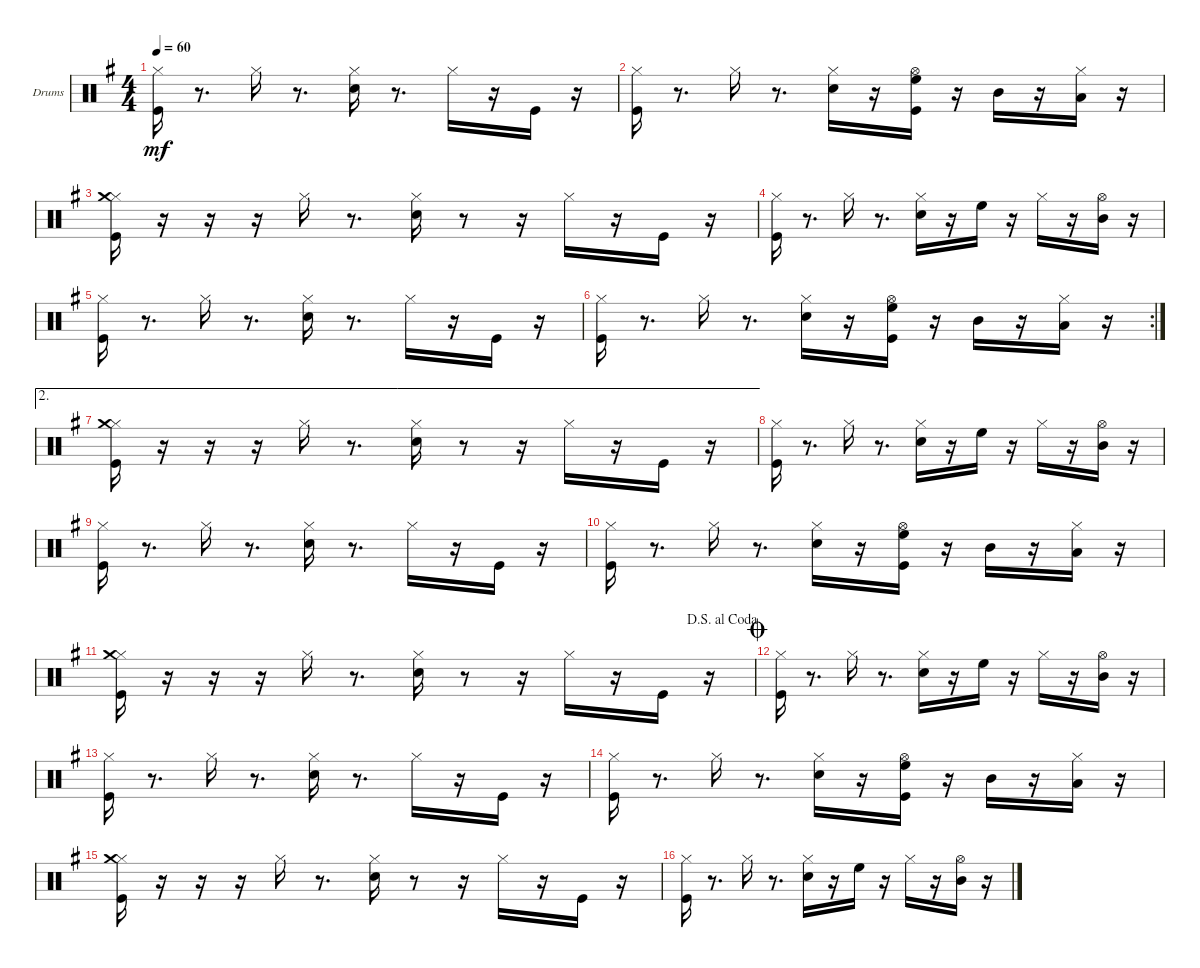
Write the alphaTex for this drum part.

\bracketExtendMode groupsimilarinstruments
\firstSystemTrackNameOrientation horizontal
\otherSystemsTrackNameOrientation horizontal
\track ("Drumkit" "Drums") {instrument percussion}
\staff {score}
\articulation defaults
\ts (4 4)
\tempo 60
\clef neutral
\scale
0.333333
\ks g
("Kick (hit)" "Hi-Hat (closed)").16{dy mf} r.8{d} "Hi-Hat (closed)".16 r.8{d} ("Hi-Hat (closed)" "Snare (hit) 2").16 r.8{d} "Hi-Hat (closed)".16 r.16 "Kick (hit)".16 r.16 |
\scale
0.333333 ("Kick (hit)" "Hi-Hat (closed)").16 r.8{d} "Hi-Hat (closed)".16 r.8{d} ("Hi-Hat (closed)" "Snare (hit) 2").16 r.16 ("Kick (hit)" "Hi-Hat (open)" "High Floor Tom (hit)").16 r.16 "Mid Tom (hit)".16 r.16 ("Hi-Hat (closed)" "Low Tom (hit)").16 r.16 |
\scale
0.333333 ("Kick (hit)" "Hi-Hat (closed)" "Crash medium (hit)").16 r.16 r.16 r.16 "Hi-Hat (closed)".16 r.8{d} ("Hi-Hat (closed)" "Snare (hit) 2").16 r.8 r.16 "Hi-Hat (closed)".16 r.16 "Kick (hit)".16 r.16 |
\scale
0.322034 ("Kick (hit)" "Hi-Hat (closed)").16 r.8{d} "Hi-Hat (closed)".16 r.8{d} ("Hi-Hat (closed)" "Snare (hit) 2").16 r.16 "High Floor Tom (hit)".16 r.16 "Hi-Hat (closed)".16 r.16 ("Hi-Hat (open)" "Mid Tom (hit)").16 r.16 |
\scale
0.322034 ("Kick (hit)" "Hi-Hat (closed)").16 r.8{d} "Hi-Hat (closed)".16 r.8{d} ("Hi-Hat (closed)" "Snare (hit) 2").16 r.8{d} "Hi-Hat (closed)".16 r.16 "Kick (hit)".16 r.16 |
\rc 2
\scale
0.355932 ("Kick (hit)" "Hi-Hat (closed)").16 r.8{d} "Hi-Hat (closed)".16 r.8{d} ("Hi-Hat (closed)" "Snare (hit) 2").16 r.16 ("Kick (hit)" "Hi-Hat (open)" "High Floor Tom (hit)").16 r.16 "Mid Tom (hit)".16 r.16 ("Hi-Hat (closed)" "Low Tom (hit)").16 r.16 |
\ae 2
\scale
0.333333 ("Kick (hit)" "Hi-Hat (closed)" "Crash medium (hit)").16 r.16 r.16 r.16 "Hi-Hat (closed)".16 r.8{d} ("Hi-Hat (closed)" "Snare (hit) 2").16 r.8 r.16 "Hi-Hat (closed)".16 r.16 "Kick (hit)".16 r.16 |
\scale
0.333333 ("Kick (hit)" "Hi-Hat (closed)").16 r.8{d} "Hi-Hat (closed)".16 r.8{d} ("Hi-Hat (closed)" "Snare (hit) 2").16 r.16 "High Floor Tom (hit)".16 r.16 "Hi-Hat (closed)".16 r.16 ("Hi-Hat (open)" "Mid Tom (hit)").16 r.16 |
\scale
0.333333 ("Kick (hit)" "Hi-Hat (closed)").16 r.8{d} "Hi-Hat (closed)".16 r.8{d} ("Hi-Hat (closed)" "Snare (hit) 2").16 r.8{d} "Hi-Hat (closed)".16 r.16 "Kick (hit)".16 r.16 |
\scale
0.333333 ("Kick (hit)" "Hi-Hat (closed)").16 r.8{d} "Hi-Hat (closed)".16 r.8{d} ("Hi-Hat (closed)" "Snare (hit) 2").16 r.16 ("Kick (hit)" "Hi-Hat (open)" "High Floor Tom (hit)").16 r.16 "Mid Tom (hit)".16 r.16 ("Hi-Hat (closed)" "Low Tom (hit)").16 r.16 |
\jump dalsegnoalcoda
\scale
0.333333 ("Kick (hit)" "Hi-Hat (closed)" "Crash medium (hit)").16 r.16 r.16 r.16 "Hi-Hat (closed)".16 r.8{d} ("Hi-Hat (closed)" "Snare (hit) 2").16 r.8 r.16 "Hi-Hat (closed)".16 r.16 "Kick (hit)".16 r.16 |
\jump coda
\scale
0.333333 ("Kick (hit)" "Hi-Hat (closed)").16 r.8{d} "Hi-Hat (closed)".16 r.8{d} ("Hi-Hat (closed)" "Snare (hit) 2").16 r.16 "High Floor Tom (hit)".16 r.16 "Hi-Hat (closed)".16 r.16 ("Hi-Hat (open)" "Mid Tom (hit)").16 r.16 |
\scale
0.333333 ("Kick (hit)" "Hi-Hat (closed)").16 r.8{d} "Hi-Hat (closed)".16 r.8{d} ("Hi-Hat (closed)" "Snare (hit) 2").16 r.8{d} "Hi-Hat (closed)".16 r.16 "Kick (hit)".16 r.16 |
\scale
0.333333 ("Kick (hit)" "Hi-Hat (closed)").16 r.8{d} "Hi-Hat (closed)".16 r.8{d} ("Hi-Hat (closed)" "Snare (hit) 2").16 r.16 ("Kick (hit)" "Hi-Hat (open)" "High Floor Tom (hit)").16 r.16 "Mid Tom (hit)".16 r.16 ("Hi-Hat (closed)" "Low Tom (hit)").16 r.16 |
\scale
0.333333 ("Kick (hit)" "Hi-Hat (closed)" "Crash medium (hit)").16 r.16 r.16 r.16 "Hi-Hat (closed)".16 r.8{d} ("Hi-Hat (closed)" "Snare (hit) 2").16 r.8 r.16 "Hi-Hat (closed)".16 r.16 "Kick (hit)".16 r.16 |
\scale
0.311475 ("Kick (hit)" "Hi-Hat (closed)").16 r.8{d} "Hi-Hat (closed)".16 r.8{d} ("Hi-Hat (closed)" "Snare (hit) 2").16 r.16 "High Floor Tom (hit)".16 r.16 "Hi-Hat (closed)".16 r.16 ("Hi-Hat (open)" "Mid Tom (hit)").16 r.16
